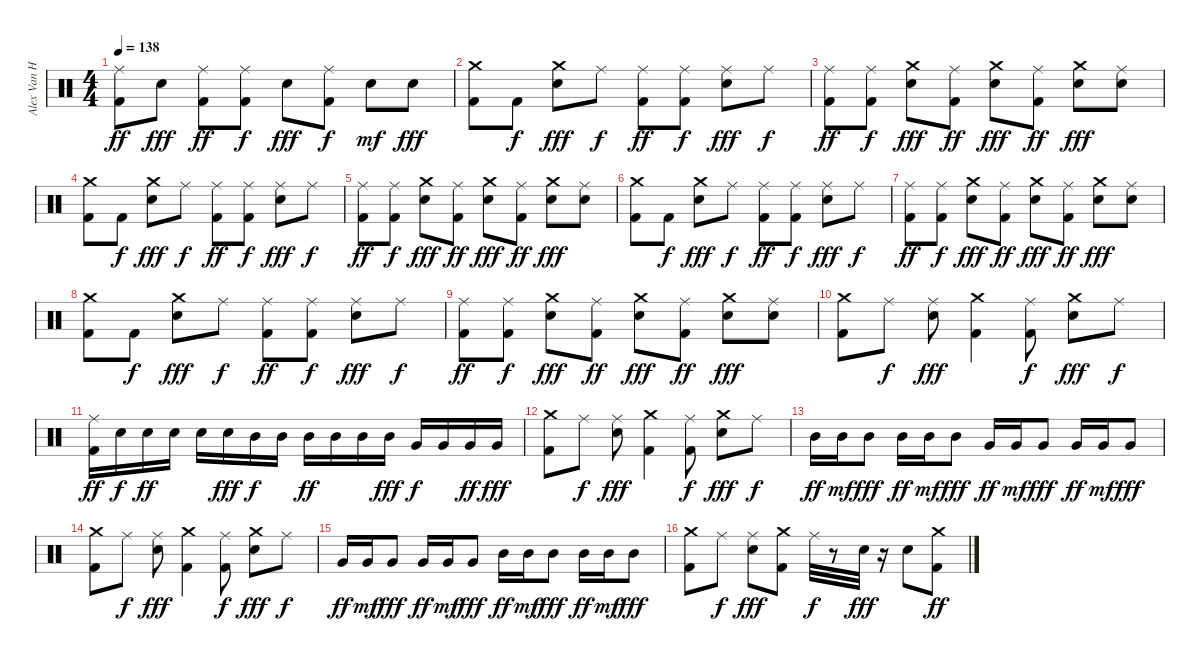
\track ("Alex Van Halen " "Alex Van H") {instrument percussion}
\staff {score}
\articulation defaults
\ts (4 4)
\tempo 138
\clef neutral
\ks c
("Kick (hit) 2" "Ride (middle)").8{dy ff} "Snare (hit) 2".8{dy fff} ("Kick (hit) 2" "Ride (middle)").8{dy ff} ("Kick (hit) 2" "Ride (middle)").8{dy f} "Snare (hit) 2".8{dy fff} ("Kick (hit) 2" "Ride (middle)").8{dy f} "Snare (hit) 2".8{dy mf} "Snare (hit) 2".8{dy fff} |
("Kick (hit) 2" "Crash medium (hit)").8 "Kick (hit) 2".8{dy f} ("Snare (hit) 2" "Crash medium (hit)").8{dy fff} "Ride (middle)".8{dy f} ("Kick (hit) 2" "Ride (middle)").8{dy ff} ("Kick (hit) 2" "Ride (middle)").8{dy f} ("Snare (hit) 2" "Ride (middle)").8{dy fff} "Ride (middle)".8{dy f} |
("Kick (hit) 2" "Ride (middle)").8{dy ff} ("Kick (hit) 2" "Ride (middle)").8{dy f} ("Snare (hit) 2" "Crash medium (hit)").8{dy fff} ("Kick (hit) 2" "Ride (middle)").8{dy ff} ("Snare (hit) 2" "Crash medium (hit)").8{dy fff} ("Kick (hit) 2" "Ride (middle)").8{dy ff} ("Snare (hit) 2" "Crash medium (hit)").8{dy fff} ("Snare (hit) 2" "Ride (middle)").8 |
("Kick (hit) 2" "Crash medium (hit)").8 "Kick (hit) 2".8{dy f} ("Snare (hit) 2" "Crash medium (hit)").8{dy fff} "Ride (middle)".8{dy f} ("Kick (hit) 2" "Ride (middle)").8{dy ff} ("Kick (hit) 2" "Ride (middle)").8{dy f} ("Snare (hit) 2" "Ride (middle)").8{dy fff} "Ride (middle)".8{dy f} |
("Kick (hit) 2" "Ride (middle)").8{dy ff} ("Kick (hit) 2" "Ride (middle)").8{dy f} ("Snare (hit) 2" "Crash medium (hit)").8{dy fff} ("Kick (hit) 2" "Ride (middle)").8{dy ff} ("Snare (hit) 2" "Crash medium (hit)").8{dy fff} ("Kick (hit) 2" "Ride (middle)").8{dy ff} ("Snare (hit) 2" "Crash medium (hit)").8{dy fff} ("Snare (hit) 2" "Ride (middle)").8 |
("Kick (hit) 2" "Crash medium (hit)").8 "Kick (hit) 2".8{dy f} ("Snare (hit) 2" "Crash medium (hit)").8{dy fff} "Ride (middle)".8{dy f} ("Kick (hit) 2" "Ride (middle)").8{dy ff} ("Kick (hit) 2" "Ride (middle)").8{dy f} ("Snare (hit) 2" "Ride (middle)").8{dy fff} "Ride (middle)".8{dy f} |
("Kick (hit) 2" "Ride (middle)").8{dy ff} ("Kick (hit) 2" "Ride (middle)").8{dy f} ("Snare (hit) 2" "Crash medium (hit)").8{dy fff} ("Kick (hit) 2" "Ride (middle)").8{dy ff} ("Snare (hit) 2" "Crash medium (hit)").8{dy fff} ("Kick (hit) 2" "Ride (middle)").8{dy ff} ("Snare (hit) 2" "Crash medium (hit)").8{dy fff} ("Snare (hit) 2" "Ride (middle)").8 |
("Kick (hit) 2" "Crash medium (hit)").8 "Kick (hit) 2".8{dy f} ("Snare (hit) 2" "Crash medium (hit)").8{dy fff} "Ride (middle)".8{dy f} ("Kick (hit) 2" "Ride (middle)").8{dy ff} ("Kick (hit) 2" "Ride (middle)").8{dy f} ("Snare (hit) 2" "Ride (middle)").8{dy fff} "Ride (middle)".8{dy f} |
("Kick (hit) 2" "Ride (middle)").8{dy ff} ("Kick (hit) 2" "Ride (middle)").8{dy f} ("Snare (hit) 2" "Crash medium (hit)").8{dy fff} ("Kick (hit) 2" "Ride (middle)").8{dy ff} ("Snare (hit) 2" "Crash medium (hit)").8{dy fff} ("Kick (hit) 2" "Ride (middle)").8{dy ff} ("Snare (hit) 2" "Crash medium (hit)").8{dy fff} ("Snare (hit) 2" "Ride (middle)").8 |
("Kick (hit) 2" "Crash medium (hit)").8 "Ride (middle)".8{dy f} ("Snare (hit) 2" "Ride (middle)").8{dy fff} ("Kick (hit) 2" "Crash medium (hit)").4 ("Kick (hit) 2" "Ride (middle)").8{dy f} ("Snare (hit) 2" "Crash medium (hit)").8{dy fff} "Ride (middle)".8{dy f} |
("Kick (hit) 2" "Ride (middle)").16{dy ff} "Snare (hit) 2".16{dy f} "Snare (hit) 2".16{dy ff} "Snare (hit) 2".16 "Snare (hit) 2".16 "Snare (hit) 2".16{dy fff} "Mid Tom (hit)".16{dy f} "Mid Tom (hit)".16 "Mid Tom (hit)".16{dy ff} "Mid Tom (hit)".16 "Mid Tom (hit)".16 "Mid Tom (hit)".16{dy fff} "Very Low Tom (hit)".16{dy f} "Very Low Tom (hit)".16 "Very Low Tom (hit)".16{dy ff} "Very Low Tom (hit)".16{dy fff} |
("Kick (hit) 2" "Crash medium (hit)").8 "Ride (middle)".8{dy f} ("Snare (hit) 2" "Ride (middle)").8{dy fff} ("Kick (hit) 2" "Crash medium (hit)").4 ("Kick (hit) 2" "Ride (middle)").8{dy f} ("Snare (hit) 2" "Crash medium (hit)").8{dy fff} "Ride (middle)".8{dy f} |
"Mid Tom (hit)".16{dy ff} "Mid Tom (hit)".16{dy mf} "Mid Tom (hit)".8{dy fff} "Mid Tom (hit)".16{dy ff} "Mid Tom (hit)".16{dy mf} "Mid Tom (hit)".8{dy fff} "Very Low Tom (hit)".16{dy ff} "Very Low Tom (hit)".16{dy mf} "Very Low Tom (hit)".8{dy fff} "Very Low Tom (hit)".16{dy ff} "Very Low Tom (hit)".16{dy mf} "Very Low Tom (hit)".8{dy fff} |
("Kick (hit) 2" "Crash medium (hit)").8 "Ride (middle)".8{dy f} ("Snare (hit) 2" "Ride (middle)").8{dy fff} ("Kick (hit) 2" "Crash medium (hit)").4 ("Kick (hit) 2" "Ride (middle)").8{dy f} ("Snare (hit) 2" "Crash medium (hit)").8{dy fff} "Ride (middle)".8{dy f} |
"Very Low Tom (hit)".16{dy ff} "Very Low Tom (hit)".16{dy mf} "Very Low Tom (hit)".8{dy fff} "Very Low Tom (hit)".16{dy ff} "Very Low Tom (hit)".16{dy mf} "Very Low Tom (hit)".8{dy fff} "Mid Tom (hit)".16{dy ff} "Mid Tom (hit)".16{dy mf} "Mid Tom (hit)".8{dy fff} "Mid Tom (hit)".16{dy ff} "Mid Tom (hit)".16{dy mf} "Mid Tom (hit)".8{dy fff} |
("Kick (hit) 2" "Crash medium (hit)").8 "Ride (middle)".8{dy f} ("Snare (hit) 2" "Ride (middle)").8{dy fff} ("Kick (hit) 2" "Crash medium (hit)").8 "Ride (middle)".32{dy f} r.8 "Snare (hit) 2".32{dy fff} r.16 "Snare (hit) 2".8 ("Crash medium (hit)" "Kick (hit) 2").8{dy ff}
